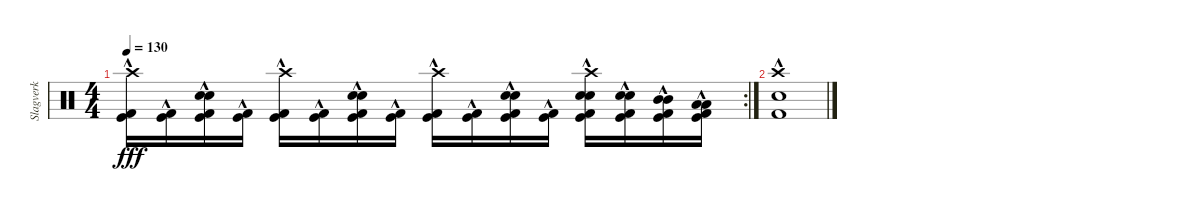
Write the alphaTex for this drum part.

\track ("Slagverk" "Slagverk") {instrument percussion}
\staff {score}
\articulation defaults
\rc 2
\ts (4 4)
\tempo 130
\clef neutral
\ks c
("Crash high (hit)"{hac} "Kick (hit)"{hac} "Kick (hit) 2"{hac}).16{dy fff} ("Kick (hit)"{hac} "Kick (hit) 2"{hac}).16 ("Kick (hit)"{hac} "Electric Snare (hit)"{hac} "Snare (hit) 2"{hac} "Kick (hit) 2"{hac}).16 ("Kick (hit)"{hac} "Kick (hit) 2"{hac}).16 ("Crash high (hit)"{hac} "Kick (hit)"{hac} "Kick (hit) 2"{hac}).16 ("Kick (hit)"{hac} "Kick (hit) 2"{hac}).16 ("Snare (hit) 2"{hac} "Electric Snare (hit)"{hac} "Kick (hit)"{hac} "Kick (hit) 2"{hac}).16 ("Kick (hit)"{hac} "Kick (hit) 2"{hac}).16 ("Crash high (hit)"{hac} "Kick (hit)"{hac} "Kick (hit) 2"{hac}).16 ("Kick (hit)"{hac} "Kick (hit) 2"{hac}).16 ("Electric Snare (hit)"{hac} "Snare (hit) 2"{hac} "Kick (hit)"{hac} "Kick (hit) 2"{hac}).16 ("Kick (hit)"{hac} "Kick (hit) 2"{hac}).16 ("Crash high (hit)"{hac} "Electric Snare (hit)"{hac} "Snare (hit) 2"{hac} "Kick (hit)"{hac} "Kick (hit) 2"{hac}).16 ("Electric Snare (hit)"{hac} "Snare (hit) 2"{hac} "Kick (hit)"{hac} "Kick (hit) 2"{hac}).16 ("Mid Tom (hit)"{hac} "Mid Tom (hit)"{hac} "Kick (hit)"{hac} "Kick (hit) 2"{hac}).16 ("Low Tom (hit)"{hac} "Low Tom (hit)"{hac} "Kick (hit)"{hac} "Kick (hit) 2"{hac}).16 |
("Crash high (hit)"{hac} "Snare (hit) 2"{hac} "Kick (hit) 2"{hac}).1
